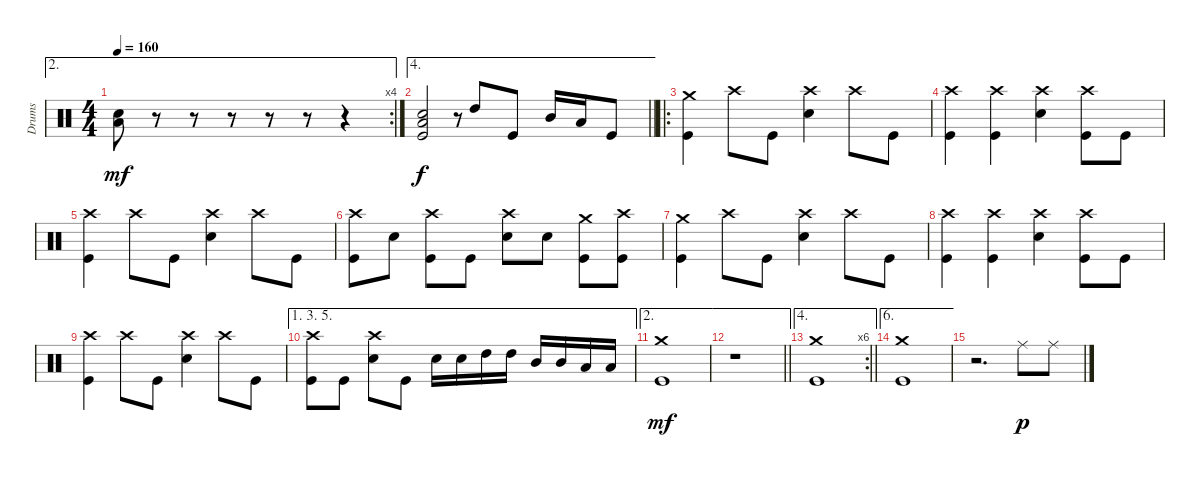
\bracketExtendMode groupsimilarinstruments
\otherSystemsTrackNameOrientation horizontal
\track ("Drumkit" "Drums") {multiBarRest instrument percussion}
\staff {score}
\articulation defaults
\ae 2
\rc 4
\ts (4 4)
\tempo 160
\clef neutral
\ks c
("Snare (hit) 2" "Low Tom (hit)").8{dy mf} r.8 r.8 r.8 r.8 r.8 r.4 |
\ae 4
\barLineRight lightlight
("Low Tom (hit)" "Snare (hit) 2" "Kick (hit)").2{dy f} r.8{gr} "High Tom (hit)".8 "Kick (hit)".8 "Mid Tom (hit)".16 "Low Tom (hit)".16 "Kick (hit)".8 |
\ro
("Kick (hit)" "Crash medium (hit)").4 "Crash high (hit)".8 "Kick (hit)".8 ("Crash high (hit)" "Snare (hit) 2").4 "Crash high (hit)".8 "Kick (hit)".8 |
("Crash high (hit)" "Kick (hit)").4 ("Crash high (hit)" "Kick (hit)").4 ("Crash high (hit)" "Snare (hit) 2").4 ("Crash high (hit)" "Kick (hit)").8 "Kick (hit)".8 |
("Kick (hit)" "Crash high (hit)").4 "Crash high (hit)".8 "Kick (hit)".8 ("Crash high (hit)" "Snare (hit) 2").4 "Crash high (hit)".8 "Kick (hit)".8 |
("Crash high (hit)" "Kick (hit)").8 "Snare (hit) 2".8 ("Crash high (hit)" "Kick (hit)").8 "Kick (hit)".8 ("Crash high (hit)" "Snare (hit) 2").8 "Snare (hit) 2".8 ("Crash medium (hit)" "Kick (hit)").8 ("Crash high (hit)" "Kick (hit)").8 |
("Kick (hit)" "Crash medium (hit)").4 "Crash high (hit)".8 "Kick (hit)".8 ("Crash high (hit)" "Snare (hit) 2").4 "Crash high (hit)".8 "Kick (hit)".8 |
("Crash high (hit)" "Kick (hit)").4 ("Crash high (hit)" "Kick (hit)").4 ("Crash high (hit)" "Snare (hit) 2").4 ("Crash high (hit)" "Kick (hit)").8 "Kick (hit)".8 |
("Kick (hit)" "Crash high (hit)").4 "Crash high (hit)".8 "Kick (hit)".8 ("Crash high (hit)" "Snare (hit) 2").4 "Crash high (hit)".8 "Kick (hit)".8 |
\ae (1 3 5)
("Crash high (hit)" "Kick (hit)").8 "Kick (hit)".8 ("Crash high (hit)" "Snare (hit) 2").8 "Kick (hit)".8 "Snare (hit) 2".16 "Snare (hit) 2".16 "High Tom (hit)".16 "High Tom (hit)".16 "Mid Tom (hit)".16 "Mid Tom (hit)".16 "Low Tom (hit)".16 "Low Tom (hit)".16 |
\ae 2
("Crash medium (hit)" "Kick (hit)").1{dy mf} |
\ae 2
\barLineRight lightlight
r.1 |
\ae 4
\rc 6
\barLineRight lightlight
("Crash medium (hit)" "Kick (hit)").1 |
\ae 6
("Crash medium (hit)" "Kick (hit)").1 |
r.2{d} "Ride (middle)".8{dy p} "Ride (middle)".8
